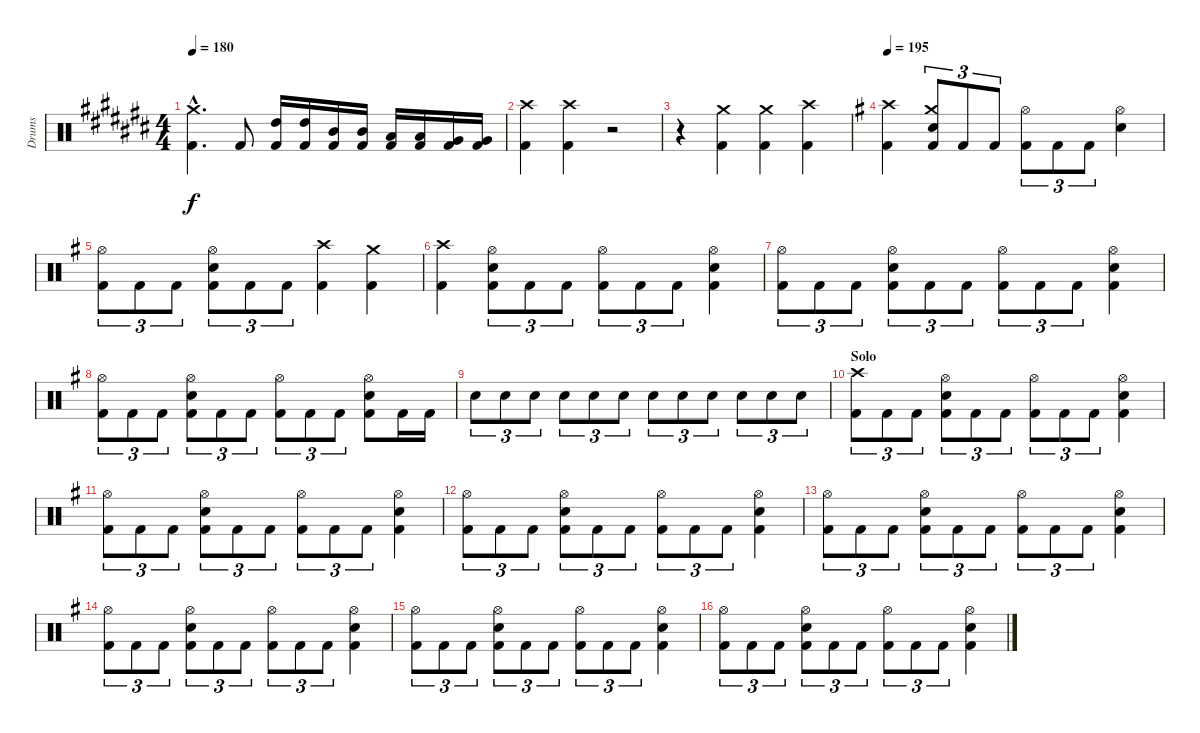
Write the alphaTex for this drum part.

\track ("Drums" "Drums") {instrument percussion}
\staff {score}
\articulation defaults
\ts (4 4)
\tempo 180
\clef neutral
\ks a#minor
("Kick (hit) 2"{hac} "Crash medium (hit)"{hac}).4{d dy f} "Kick (hit) 2".8 ("Kick (hit) 2" "High Tom (hit)").16 ("Kick (hit) 2" "High Tom (hit)").16 ("Kick (hit) 2" "Mid Tom (hit)").16 ("Kick (hit) 2" "Mid Tom (hit)").16 ("Kick (hit) 2" "Low Tom (hit)").16 ("Kick (hit) 2" "Low Tom (hit)").16 ("Kick (hit) 2" "Very Low Tom (hit)").16 ("Kick (hit) 2" "Very Low Tom (hit)").16 |
("Kick (hit) 2" "Crash high (hit)").4 ("Kick (hit) 2" "Crash high (hit)").4 r.2 |
r.4 ("Kick (hit) 2" "Crash medium (hit)").4 ("Kick (hit) 2" "Crash medium (hit)").4 ("Kick (hit) 2" "Crash high (hit)").4 |
\section ("" "")
\tempo 195
\ks eminor
("Kick (hit) 2" "Crash high (hit)").4 ("Kick (hit) 2" "Electric Snare (hit)" "Crash medium (hit)").8{tu (3 2)} "Kick (hit) 2".8{tu (3 2)} "Kick (hit) 2".8{tu (3 2)} ("Kick (hit) 2" "Hi-Hat (open)").8{tu (3 2)} "Kick (hit) 2".8{tu (3 2)} "Kick (hit) 2".8{tu (3 2)} ("Electric Snare (hit)" "Hi-Hat (open)").4 |
("Kick (hit) 2" "Hi-Hat (open)").8{tu (3 2)} "Kick (hit) 2".8{tu (3 2)} "Kick (hit) 2".8{tu (3 2)} ("Kick (hit) 2" "Electric Snare (hit)" "Hi-Hat (open)").8{tu (3 2)} "Kick (hit) 2".8{tu (3 2)} "Kick (hit) 2".8{tu (3 2)} ("Kick (hit) 2" "Crash high (hit)").4 ("Kick (hit) 2" "Crash medium (hit)").4 |
("Kick (hit) 2" "Crash high (hit)").4 ("Kick (hit) 2" "Electric Snare (hit)" "Hi-Hat (open)").8{tu (3 2)} "Kick (hit) 2".8{tu (3 2)} "Kick (hit) 2".8{tu (3 2)} ("Kick (hit) 2" "Hi-Hat (open)").8{tu (3 2)} "Kick (hit) 2".8{tu (3 2)} "Kick (hit) 2".8{tu (3 2)} ("Kick (hit) 2" "Electric Snare (hit)" "Hi-Hat (open)").4 |
("Kick (hit) 2" "Hi-Hat (open)").8{tu (3 2)} "Kick (hit) 2".8{tu (3 2)} "Kick (hit) 2".8{tu (3 2)} ("Kick (hit) 2" "Electric Snare (hit)" "Hi-Hat (open)").8{tu (3 2)} "Kick (hit) 2".8{tu (3 2)} "Kick (hit) 2".8{tu (3 2)} ("Kick (hit) 2" "Hi-Hat (open)").8{tu (3 2)} "Kick (hit) 2".8{tu (3 2)} "Kick (hit) 2".8{tu (3 2)} ("Kick (hit) 2" "Electric Snare (hit)" "Hi-Hat (open)").4 |
("Kick (hit) 2" "Hi-Hat (open)").8{tu (3 2)} "Kick (hit) 2".8{tu (3 2)} "Kick (hit) 2".8{tu (3 2)} ("Kick (hit) 2" "Electric Snare (hit)" "Hi-Hat (open)").8{tu (3 2)} "Kick (hit) 2".8{tu (3 2)} "Kick (hit) 2".8{tu (3 2)} ("Kick (hit) 2" "Hi-Hat (open)").8{tu (3 2)} "Kick (hit) 2".8{tu (3 2)} "Kick (hit) 2".8{tu (3 2)} ("Kick (hit) 2" "Electric Snare (hit)" "Hi-Hat (open)").8 "Kick (hit) 2".16 "Kick (hit) 2".16 |
"Electric Snare (hit)".8{tu (3 2)} "Electric Snare (hit)".8{tu (3 2)} "Electric Snare (hit)".8{tu (3 2)} "Electric Snare (hit)".8{tu (3 2)} "Electric Snare (hit)".8{tu (3 2)} "Electric Snare (hit)".8{tu (3 2)} "Electric Snare (hit)".8{tu (3 2)} "Electric Snare (hit)".8{tu (3 2)} "Electric Snare (hit)".8{tu (3 2)} "Electric Snare (hit)".8{tu (3 2)} "Electric Snare (hit)".8{tu (3 2)} "Electric Snare (hit)".8{tu (3 2)} |
\section ("" "Solo")
("Kick (hit) 2" "Crash high (hit)").8{tu (3 2)} "Kick (hit) 2".8{tu (3 2)} "Kick (hit) 2".8{tu (3 2)} ("Kick (hit) 2" "Electric Snare (hit)" "Hi-Hat (open)").8{tu (3 2)} "Kick (hit) 2".8{tu (3 2)} "Kick (hit) 2".8{tu (3 2)} ("Kick (hit) 2" "Hi-Hat (open)").8{tu (3 2)} "Kick (hit) 2".8{tu (3 2)} "Kick (hit) 2".8{tu (3 2)} ("Kick (hit) 2" "Electric Snare (hit)" "Hi-Hat (open)").4 |
("Kick (hit) 2" "Hi-Hat (open)").8{tu (3 2)} "Kick (hit) 2".8{tu (3 2)} "Kick (hit) 2".8{tu (3 2)} ("Kick (hit) 2" "Electric Snare (hit)" "Hi-Hat (open)").8{tu (3 2)} "Kick (hit) 2".8{tu (3 2)} "Kick (hit) 2".8{tu (3 2)} ("Kick (hit) 2" "Hi-Hat (open)").8{tu (3 2)} "Kick (hit) 2".8{tu (3 2)} "Kick (hit) 2".8{tu (3 2)} ("Kick (hit) 2" "Electric Snare (hit)" "Hi-Hat (open)").4 |
("Kick (hit) 2" "Hi-Hat (open)").8{tu (3 2)} "Kick (hit) 2".8{tu (3 2)} "Kick (hit) 2".8{tu (3 2)} ("Kick (hit) 2" "Electric Snare (hit)" "Hi-Hat (open)").8{tu (3 2)} "Kick (hit) 2".8{tu (3 2)} "Kick (hit) 2".8{tu (3 2)} ("Kick (hit) 2" "Hi-Hat (open)").8{tu (3 2)} "Kick (hit) 2".8{tu (3 2)} "Kick (hit) 2".8{tu (3 2)} ("Kick (hit) 2" "Electric Snare (hit)" "Hi-Hat (open)").4 |
("Kick (hit) 2" "Hi-Hat (open)").8{tu (3 2)} "Kick (hit) 2".8{tu (3 2)} "Kick (hit) 2".8{tu (3 2)} ("Kick (hit) 2" "Electric Snare (hit)" "Hi-Hat (open)").8{tu (3 2)} "Kick (hit) 2".8{tu (3 2)} "Kick (hit) 2".8{tu (3 2)} ("Kick (hit) 2" "Hi-Hat (open)").8{tu (3 2)} "Kick (hit) 2".8{tu (3 2)} "Kick (hit) 2".8{tu (3 2)} ("Kick (hit) 2" "Electric Snare (hit)" "Hi-Hat (open)").4 |
("Kick (hit) 2" "Hi-Hat (open)").8{tu (3 2)} "Kick (hit) 2".8{tu (3 2)} "Kick (hit) 2".8{tu (3 2)} ("Kick (hit) 2" "Electric Snare (hit)" "Hi-Hat (open)").8{tu (3 2)} "Kick (hit) 2".8{tu (3 2)} "Kick (hit) 2".8{tu (3 2)} ("Kick (hit) 2" "Hi-Hat (open)").8{tu (3 2)} "Kick (hit) 2".8{tu (3 2)} "Kick (hit) 2".8{tu (3 2)} ("Kick (hit) 2" "Electric Snare (hit)" "Hi-Hat (open)").4 |
("Kick (hit) 2" "Hi-Hat (open)").8{tu (3 2)} "Kick (hit) 2".8{tu (3 2)} "Kick (hit) 2".8{tu (3 2)} ("Kick (hit) 2" "Electric Snare (hit)" "Hi-Hat (open)").8{tu (3 2)} "Kick (hit) 2".8{tu (3 2)} "Kick (hit) 2".8{tu (3 2)} ("Kick (hit) 2" "Hi-Hat (open)").8{tu (3 2)} "Kick (hit) 2".8{tu (3 2)} "Kick (hit) 2".8{tu (3 2)} ("Kick (hit) 2" "Electric Snare (hit)" "Hi-Hat (open)").4 |
("Kick (hit) 2" "Hi-Hat (open)").8{tu (3 2)} "Kick (hit) 2".8{tu (3 2)} "Kick (hit) 2".8{tu (3 2)} ("Kick (hit) 2" "Electric Snare (hit)" "Hi-Hat (open)").8{tu (3 2)} "Kick (hit) 2".8{tu (3 2)} "Kick (hit) 2".8{tu (3 2)} ("Kick (hit) 2" "Hi-Hat (open)").8{tu (3 2)} "Kick (hit) 2".8{tu (3 2)} "Kick (hit) 2".8{tu (3 2)} ("Kick (hit) 2" "Electric Snare (hit)" "Hi-Hat (open)").4
